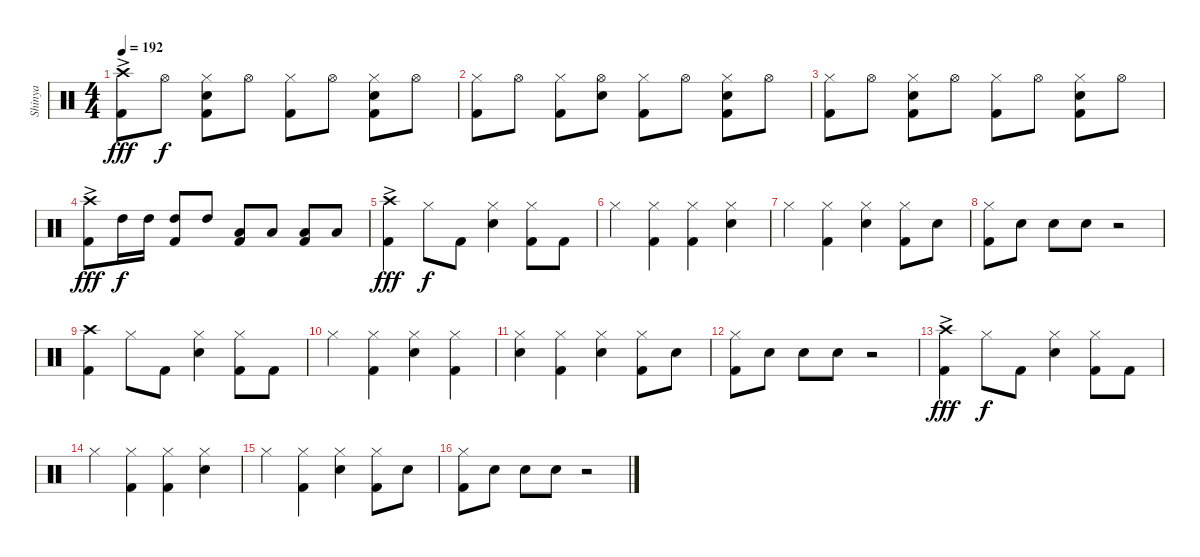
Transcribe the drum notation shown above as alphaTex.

\track ("Shinya" "Shinya") {instrument percussion}
\staff {score}
\articulation defaults
\ts (4 4)
\tempo 192
\clef neutral
\ks c
("Crash high (hit)"{ac} "Kick (hit) 2").8{dy fff} "Hi-Hat (open)".8{dy f} ("Hi-Hat (closed)" "Snare (hit) 2" "Kick (hit) 2").8 "Hi-Hat (open)".8 ("Hi-Hat (closed)" "Kick (hit) 2").8 "Hi-Hat (open)".8 ("Hi-Hat (closed)" "Snare (hit) 2" "Kick (hit) 2").8 "Hi-Hat (open)".8 |
("Hi-Hat (closed)" "Kick (hit) 2").8 "Hi-Hat (open)".8 ("Hi-Hat (closed)" "Kick (hit) 2").8 ("Hi-Hat (open)" "Snare (hit) 2").8 ("Hi-Hat (closed)" "Kick (hit) 2").8 "Hi-Hat (open)".8 ("Hi-Hat (closed)" "Snare (hit) 2" "Kick (hit) 2").8 "Hi-Hat (open)".8 |
("Hi-Hat (closed)" "Kick (hit) 2").8 "Hi-Hat (open)".8 ("Hi-Hat (closed)" "Snare (hit) 2" "Kick (hit) 2").8 "Hi-Hat (open)".8 ("Hi-Hat (closed)" "Kick (hit) 2").8 "Hi-Hat (open)".8 ("Hi-Hat (closed)" "Snare (hit) 2" "Kick (hit) 2").8 "Hi-Hat (open)".8 |
("Crash high (hit)"{ac} "Kick (hit) 2").8{dy fff} "High Tom (hit)".16{dy f} "High Tom (hit)".16 ("High Tom (hit)" "Kick (hit) 2").8 "High Tom (hit)".8 ("Low Tom (hit)" "Kick (hit) 2").8 "Low Tom (hit)".8 ("Low Floor Tom (hit)" "Kick (hit) 2").8 "Low Floor Tom (hit)".8 |
("Crash high (hit)"{ac} "Kick (hit) 2").4{dy fff} "Hi-Hat (closed)".8{dy f} "Kick (hit) 2".8 ("Hi-Hat (closed)" "Snare (hit) 2").4 ("Hi-Hat (closed)" "Kick (hit) 2").8 "Kick (hit) 2".8 |
"Hi-Hat (closed)".4 ("Hi-Hat (closed)" "Kick (hit) 2").4 ("Hi-Hat (closed)" "Kick (hit) 2").4 ("Hi-Hat (closed)" "Snare (hit) 2").4 |
"Hi-Hat (closed)".4 ("Hi-Hat (closed)" "Kick (hit) 2").4 ("Hi-Hat (closed)" "Snare (hit) 2").4 ("Hi-Hat (closed)" "Kick (hit) 2").8 "Snare (hit) 2".8 |
("Hi-Hat (closed)" "Kick (hit) 2").8 "Snare (hit) 2".8 "Snare (hit) 2".8 "Snare (hit) 2".8 r.2 |
("Crash high (hit)" "Kick (hit) 2").4 "Hi-Hat (closed)".8 "Kick (hit) 2".8 ("Hi-Hat (closed)" "Snare (hit) 2").4 ("Hi-Hat (closed)" "Kick (hit) 2").8 "Kick (hit) 2".8 |
"Hi-Hat (closed)".4 ("Hi-Hat (closed)" "Kick (hit) 2").4 ("Hi-Hat (closed)" "Snare (hit) 2").4 ("Hi-Hat (closed)" "Kick (hit) 2").4 |
("Hi-Hat (closed)" "Snare (hit) 2").4 ("Hi-Hat (closed)" "Kick (hit) 2").4 ("Hi-Hat (closed)" "Snare (hit) 2").4 ("Hi-Hat (closed)" "Kick (hit) 2").8 "Snare (hit) 2".8 |
("Hi-Hat (closed)" "Kick (hit) 2").8 "Snare (hit) 2".8 "Snare (hit) 2".8 "Snare (hit) 2".8 r.2 |
("Crash high (hit)"{ac} "Kick (hit) 2").4{dy fff} "Hi-Hat (closed)".8{dy f} "Kick (hit) 2".8 ("Hi-Hat (closed)" "Snare (hit) 2").4 ("Hi-Hat (closed)" "Kick (hit) 2").8 "Kick (hit) 2".8 |
"Hi-Hat (closed)".4 ("Hi-Hat (closed)" "Kick (hit) 2").4 ("Hi-Hat (closed)" "Kick (hit) 2").4 ("Hi-Hat (closed)" "Snare (hit) 2").4 |
"Hi-Hat (closed)".4 ("Hi-Hat (closed)" "Kick (hit) 2").4 ("Hi-Hat (closed)" "Snare (hit) 2").4 ("Hi-Hat (closed)" "Kick (hit) 2").8 "Snare (hit) 2".8 |
("Hi-Hat (closed)" "Kick (hit) 2").8 "Snare (hit) 2".8 "Snare (hit) 2".8 "Snare (hit) 2".8 r.2
